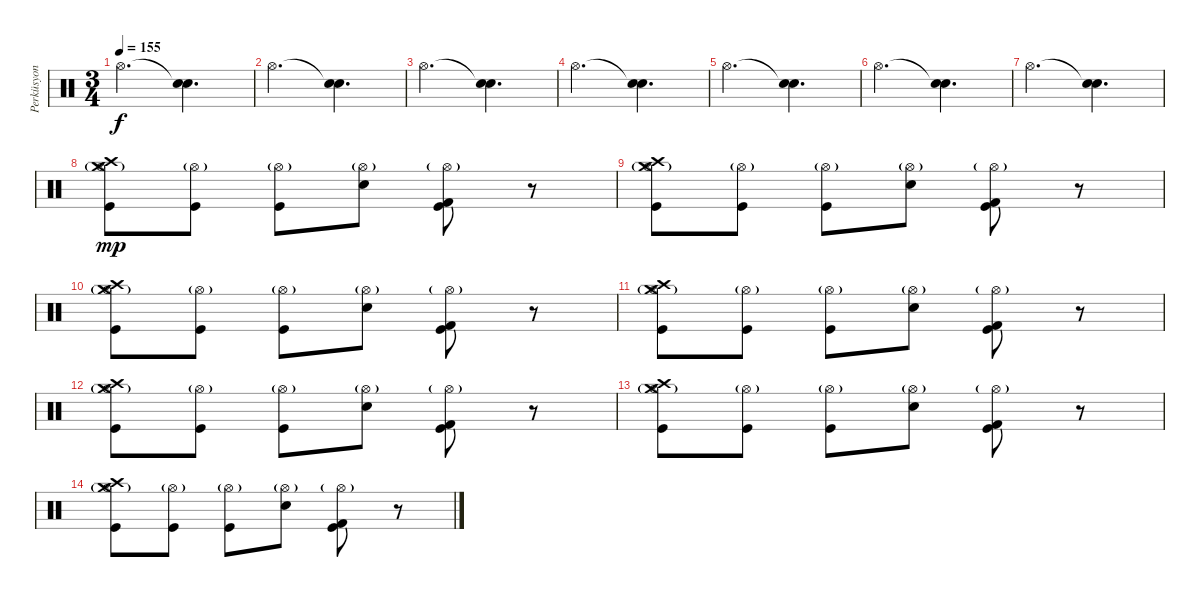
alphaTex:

\track ("Perküsyon" "Perküsyon") {instrument percussion}
\staff {score}
\articulation defaults
\ts (3 4)
\tempo 155
\clef neutral
\ks c "Hi-Hat (open)".4{d dy f}
("Snare (hit)"{t} "Electric Snare (hit)").4{d} |
"Hi-Hat (open)".4{d} ("Snare (hit)"{t} "Electric Snare (hit)").4{d} |
"Hi-Hat (open)".4{d} ("Snare (hit)"{t} "Electric Snare (hit)").4{d} |
"Hi-Hat (open)".4{d} ("Snare (hit)"{t} "Electric Snare (hit)").4{d} |
"Hi-Hat (open)".4{d} ("Snare (hit)"{t} "Electric Snare (hit)").4{d} |
"Hi-Hat (open)".4{d} ("Snare (hit)"{t} "Electric Snare (hit)").4{d} |
"Hi-Hat (open)".4{d} ("Snare (hit)"{t} "Electric Snare (hit)").4{d} |
("Hi-Hat (open)"{g} "Crash high (hit)" "Crash medium (hit)" "Kick (hit)").8{dy mp} ("Hi-Hat (open)"{g} "Kick (hit)").8 ("Hi-Hat (open)"{g} "Kick (hit)").8 ("Hi-Hat (open)"{g} "Electric Snare (hit)").8 ("Hi-Hat (open)"{g} "Kick (hit) 2" "Kick (hit)").8 r.8 |
("Hi-Hat (open)"{g} "Crash high (hit)" "Crash medium (hit)" "Kick (hit)").8 ("Hi-Hat (open)"{g} "Kick (hit)").8 ("Hi-Hat (open)"{g} "Kick (hit)").8 ("Hi-Hat (open)"{g} "Electric Snare (hit)").8 ("Hi-Hat (open)"{g} "Kick (hit) 2" "Kick (hit)").8 r.8 |
("Hi-Hat (open)"{g} "Crash high (hit)" "Crash medium (hit)" "Kick (hit)").8 ("Hi-Hat (open)"{g} "Kick (hit)").8 ("Hi-Hat (open)"{g} "Kick (hit)").8 ("Hi-Hat (open)"{g} "Electric Snare (hit)").8 ("Hi-Hat (open)"{g} "Kick (hit) 2" "Kick (hit)").8 r.8 |
("Hi-Hat (open)"{g} "Crash high (hit)" "Crash medium (hit)" "Kick (hit)").8 ("Hi-Hat (open)"{g} "Kick (hit)").8 ("Hi-Hat (open)"{g} "Kick (hit)").8 ("Hi-Hat (open)"{g} "Electric Snare (hit)").8 ("Hi-Hat (open)"{g} "Kick (hit) 2" "Kick (hit)").8 r.8 |
("Hi-Hat (open)"{g} "Crash high (hit)" "Crash medium (hit)" "Kick (hit)").8 ("Hi-Hat (open)"{g} "Kick (hit)").8 ("Hi-Hat (open)"{g} "Kick (hit)").8 ("Hi-Hat (open)"{g} "Electric Snare (hit)").8 ("Hi-Hat (open)"{g} "Kick (hit) 2" "Kick (hit)").8 r.8 |
("Hi-Hat (open)"{g} "Crash high (hit)" "Crash medium (hit)" "Kick (hit)").8 ("Hi-Hat (open)"{g} "Kick (hit)").8 ("Hi-Hat (open)"{g} "Kick (hit)").8 ("Hi-Hat (open)"{g} "Electric Snare (hit)").8 ("Hi-Hat (open)"{g} "Kick (hit) 2" "Kick (hit)").8 r.8 |
("Hi-Hat (open)"{g} "Crash high (hit)" "Crash medium (hit)" "Kick (hit)").8 ("Hi-Hat (open)"{g} "Kick (hit)").8 ("Hi-Hat (open)"{g} "Kick (hit)").8 ("Hi-Hat (open)"{g} "Electric Snare (hit)").8 ("Hi-Hat (open)"{g} "Kick (hit) 2" "Kick (hit)").8 r.8
